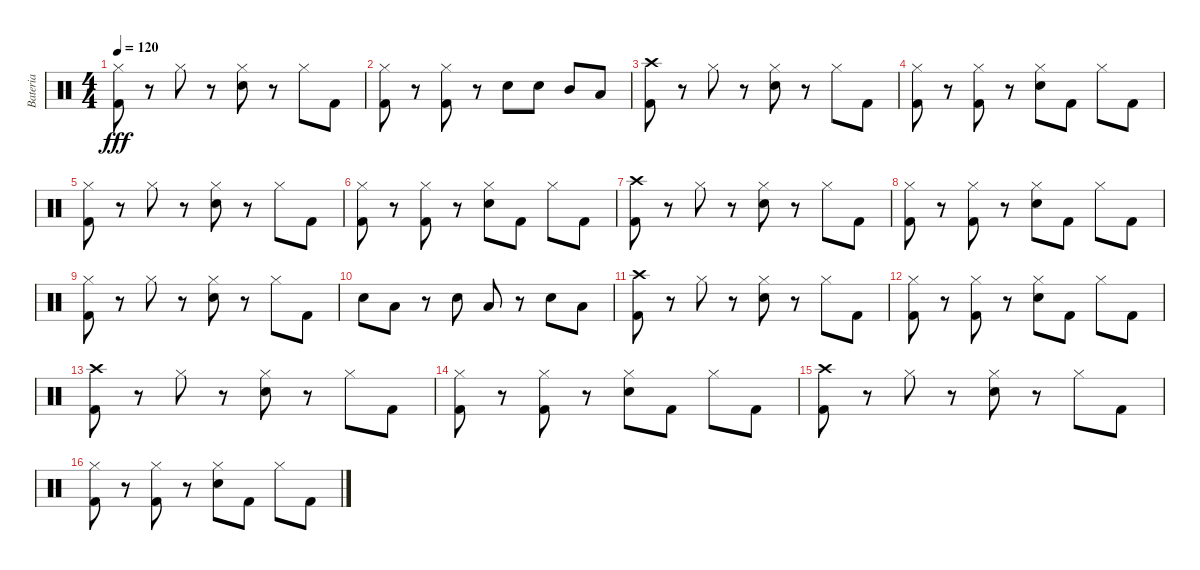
\track ("Bateria" "Bateria") {instrument percussion}
\staff {score}
\articulation defaults
\ts (4 4)
\tempo 120
\clef neutral
\ks c
("Hi-Hat (closed)" "Kick (hit) 2").8{dy fff} r.8 "Hi-Hat (closed)".8 r.8 ("Hi-Hat (closed)" "Electric Snare (hit)").8 r.8 "Hi-Hat (closed)".8 "Kick (hit) 2".8 |
("Hi-Hat (closed)" "Kick (hit) 2").8 r.8 ("Hi-Hat (closed)" "Kick (hit) 2").8 r.8 "Electric Snare (hit)".8 "Electric Snare (hit)".8 "Mid Tom (hit)".8 "Low Tom (hit)".8 |
("Crash high (hit)" "Kick (hit) 2").8 r.8 "Hi-Hat (closed)".8 r.8 ("Hi-Hat (closed)" "Electric Snare (hit)").8 r.8 "Hi-Hat (closed)".8 "Kick (hit) 2".8 |
("Hi-Hat (closed)" "Kick (hit) 2").8 r.8 ("Hi-Hat (closed)" "Kick (hit) 2").8 r.8 ("Hi-Hat (closed)" "Electric Snare (hit)").8 "Kick (hit) 2".8 "Hi-Hat (closed)".8 "Kick (hit) 2".8 |
("Hi-Hat (closed)" "Kick (hit) 2").8 r.8 "Hi-Hat (closed)".8 r.8 ("Hi-Hat (closed)" "Electric Snare (hit)").8 r.8 "Hi-Hat (closed)".8 "Kick (hit) 2".8 |
("Hi-Hat (closed)" "Kick (hit) 2").8 r.8 ("Hi-Hat (closed)" "Kick (hit) 2").8 r.8 ("Hi-Hat (closed)" "Electric Snare (hit)").8 "Kick (hit) 2".8 "Hi-Hat (closed)".8 "Kick (hit) 2".8 |
("Crash high (hit)" "Kick (hit) 2").8 r.8 "Hi-Hat (closed)".8 r.8 ("Hi-Hat (closed)" "Electric Snare (hit)").8 r.8 "Hi-Hat (closed)".8 "Kick (hit) 2".8 |
("Hi-Hat (closed)" "Kick (hit) 2").8 r.8 ("Hi-Hat (closed)" "Kick (hit) 2").8 r.8 ("Hi-Hat (closed)" "Electric Snare (hit)").8 "Kick (hit) 2".8 "Hi-Hat (closed)".8 "Kick (hit) 2".8 |
("Hi-Hat (closed)" "Kick (hit) 2").8 r.8 "Hi-Hat (closed)".8 r.8 ("Hi-Hat (closed)" "Electric Snare (hit)").8 r.8 "Hi-Hat (closed)".8 "Kick (hit) 2".8 |
"Electric Snare (hit)".8 "Low Tom (hit)".8 r.8 "Electric Snare (hit)".8 "Low Tom (hit)".8 r.8 "Electric Snare (hit)".8 "Low Tom (hit)".8 |
("Crash high (hit)" "Kick (hit) 2").8 r.8 "Hi-Hat (closed)".8 r.8 ("Hi-Hat (closed)" "Electric Snare (hit)").8 r.8 "Hi-Hat (closed)".8 "Kick (hit) 2".8 |
("Hi-Hat (closed)" "Kick (hit) 2").8 r.8 ("Hi-Hat (closed)" "Kick (hit) 2").8 r.8 ("Hi-Hat (closed)" "Electric Snare (hit)").8 "Kick (hit) 2".8 "Hi-Hat (closed)".8 "Kick (hit) 2".8 |
("Crash high (hit)" "Kick (hit) 2").8 r.8 "Hi-Hat (closed)".8 r.8 ("Hi-Hat (closed)" "Electric Snare (hit)").8 r.8 "Hi-Hat (closed)".8 "Kick (hit) 2".8 |
("Hi-Hat (closed)" "Kick (hit) 2").8 r.8 ("Hi-Hat (closed)" "Kick (hit) 2").8 r.8 ("Hi-Hat (closed)" "Electric Snare (hit)").8 "Kick (hit) 2".8 "Hi-Hat (closed)".8 "Kick (hit) 2".8 |
("Crash high (hit)" "Kick (hit) 2").8 r.8 "Hi-Hat (closed)".8 r.8 ("Hi-Hat (closed)" "Electric Snare (hit)").8 r.8 "Hi-Hat (closed)".8 "Kick (hit) 2".8 |
("Hi-Hat (closed)" "Kick (hit) 2").8 r.8 ("Hi-Hat (closed)" "Kick (hit) 2").8 r.8 ("Hi-Hat (closed)" "Electric Snare (hit)").8 "Kick (hit) 2".8 "Hi-Hat (closed)".8 "Kick (hit) 2".8
